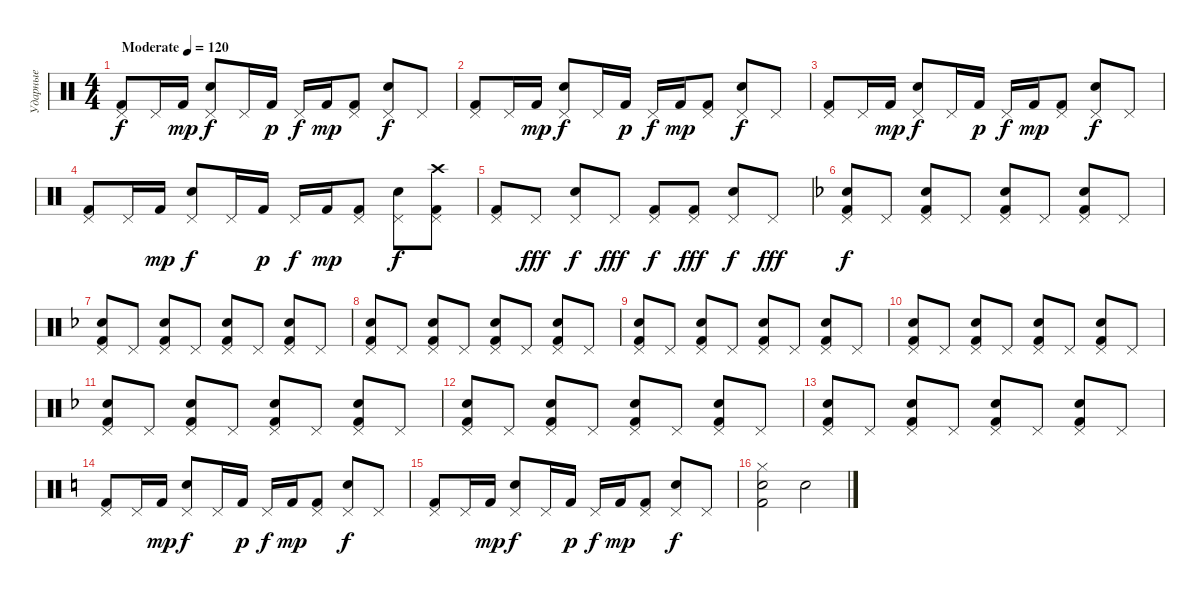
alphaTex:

\track ("Ударные" "Ударные") {instrument percussion}
\staff {score}
\articulation defaults
\ts (4 4)
\tempo (120 "Moderate")
\clef neutral
\ks c
("Pedal Hi-Hat (hit)" "Kick (hit) 2").8{dy f} "Pedal Hi-Hat (hit)".16 "Kick (hit) 2".16{dy mp} ("Pedal Hi-Hat (hit)" "Snare (hit) 2").8{dy f} "Pedal Hi-Hat (hit)".16 "Kick (hit) 2".16{dy p} "Pedal Hi-Hat (hit)".16{dy f} "Kick (hit) 2".16{dy mp} ("Pedal Hi-Hat (hit)" "Kick (hit) 2").8 ("Pedal Hi-Hat (hit)" "Snare (hit) 2").8{dy f} "Pedal Hi-Hat (hit)".8 |
("Pedal Hi-Hat (hit)" "Kick (hit) 2").8 "Pedal Hi-Hat (hit)".16 "Kick (hit) 2".16{dy mp} ("Pedal Hi-Hat (hit)" "Snare (hit) 2").8{dy f} "Pedal Hi-Hat (hit)".16 "Kick (hit) 2".16{dy p} "Pedal Hi-Hat (hit)".16{dy f} "Kick (hit) 2".16{dy mp} ("Pedal Hi-Hat (hit)" "Kick (hit) 2").8 ("Pedal Hi-Hat (hit)" "Snare (hit) 2").8{dy f} "Pedal Hi-Hat (hit)".8 |
("Pedal Hi-Hat (hit)" "Kick (hit) 2").8 "Pedal Hi-Hat (hit)".16 "Kick (hit) 2".16{dy mp} ("Pedal Hi-Hat (hit)" "Snare (hit) 2").8{dy f} "Pedal Hi-Hat (hit)".16 "Kick (hit) 2".16{dy p} "Pedal Hi-Hat (hit)".16{dy f} "Kick (hit) 2".16{dy mp} ("Pedal Hi-Hat (hit)" "Kick (hit) 2").8 ("Pedal Hi-Hat (hit)" "Snare (hit) 2").8{dy f} "Pedal Hi-Hat (hit)".8 |
("Pedal Hi-Hat (hit)" "Kick (hit) 2").8 "Pedal Hi-Hat (hit)".16 "Kick (hit) 2".16{dy mp} ("Pedal Hi-Hat (hit)" "Snare (hit) 2").8{dy f} "Pedal Hi-Hat (hit)".16 "Kick (hit) 2".16{dy p} "Pedal Hi-Hat (hit)".16{dy f} "Kick (hit) 2".16{dy mp} ("Pedal Hi-Hat (hit)" "Kick (hit) 2").8 ("Pedal Hi-Hat (hit)" "Snare (hit) 2").8{dy f} ("Pedal Hi-Hat (hit)" "Kick (hit) 2" "Crash high (hit)").8 |
("Kick (hit) 2" "Pedal Hi-Hat (hit)").8 "Pedal Hi-Hat (hit)".8{dy fff} ("Pedal Hi-Hat (hit)" "Snare (hit) 2").8{dy f} "Pedal Hi-Hat (hit)".8{dy fff} ("Kick (hit) 2" "Pedal Hi-Hat (hit)").8{dy f} ("Kick (hit) 2" "Pedal Hi-Hat (hit)").8{dy fff} ("Pedal Hi-Hat (hit)" "Snare (hit) 2").8{dy f} "Pedal Hi-Hat (hit)".8{dy fff} |
\ks dminor
("Pedal Hi-Hat (hit)" "Snare (hit) 2" "Kick (hit) 2").8{dy f} "Pedal Hi-Hat (hit)".8 ("Pedal Hi-Hat (hit)" "Snare (hit) 2" "Kick (hit) 2").8 "Pedal Hi-Hat (hit)".8 ("Pedal Hi-Hat (hit)" "Snare (hit) 2" "Kick (hit) 2").8 "Pedal Hi-Hat (hit)".8 ("Pedal Hi-Hat (hit)" "Snare (hit) 2" "Kick (hit) 2").8 "Pedal Hi-Hat (hit)".8 |
("Pedal Hi-Hat (hit)" "Snare (hit) 2" "Kick (hit) 2").8 "Pedal Hi-Hat (hit)".8 ("Pedal Hi-Hat (hit)" "Snare (hit) 2" "Kick (hit) 2").8 "Pedal Hi-Hat (hit)".8 ("Pedal Hi-Hat (hit)" "Snare (hit) 2" "Kick (hit) 2").8 "Pedal Hi-Hat (hit)".8 ("Pedal Hi-Hat (hit)" "Snare (hit) 2" "Kick (hit) 2").8 "Pedal Hi-Hat (hit)".8 |
("Pedal Hi-Hat (hit)" "Snare (hit) 2" "Kick (hit) 2").8 "Pedal Hi-Hat (hit)".8 ("Pedal Hi-Hat (hit)" "Snare (hit) 2" "Kick (hit) 2").8 "Pedal Hi-Hat (hit)".8 ("Pedal Hi-Hat (hit)" "Snare (hit) 2" "Kick (hit) 2").8 "Pedal Hi-Hat (hit)".8 ("Pedal Hi-Hat (hit)" "Snare (hit) 2" "Kick (hit) 2").8 "Pedal Hi-Hat (hit)".8 |
("Pedal Hi-Hat (hit)" "Snare (hit) 2" "Kick (hit) 2").8 "Pedal Hi-Hat (hit)".8 ("Pedal Hi-Hat (hit)" "Snare (hit) 2" "Kick (hit) 2").8 "Pedal Hi-Hat (hit)".8 ("Pedal Hi-Hat (hit)" "Snare (hit) 2" "Kick (hit) 2").8 "Pedal Hi-Hat (hit)".8 ("Pedal Hi-Hat (hit)" "Snare (hit) 2" "Kick (hit) 2").8 "Pedal Hi-Hat (hit)".8 |
("Pedal Hi-Hat (hit)" "Snare (hit) 2" "Kick (hit) 2").8 "Pedal Hi-Hat (hit)".8 ("Pedal Hi-Hat (hit)" "Snare (hit) 2" "Kick (hit) 2").8 "Pedal Hi-Hat (hit)".8 ("Pedal Hi-Hat (hit)" "Snare (hit) 2" "Kick (hit) 2").8 "Pedal Hi-Hat (hit)".8 ("Pedal Hi-Hat (hit)" "Snare (hit) 2" "Kick (hit) 2").8 "Pedal Hi-Hat (hit)".8 |
("Pedal Hi-Hat (hit)" "Snare (hit) 2" "Kick (hit) 2").8 "Pedal Hi-Hat (hit)".8 ("Pedal Hi-Hat (hit)" "Snare (hit) 2" "Kick (hit) 2").8 "Pedal Hi-Hat (hit)".8 ("Pedal Hi-Hat (hit)" "Snare (hit) 2" "Kick (hit) 2").8 "Pedal Hi-Hat (hit)".8 ("Pedal Hi-Hat (hit)" "Snare (hit) 2" "Kick (hit) 2").8 "Pedal Hi-Hat (hit)".8 |
("Pedal Hi-Hat (hit)" "Snare (hit) 2" "Kick (hit) 2").8 "Pedal Hi-Hat (hit)".8 ("Pedal Hi-Hat (hit)" "Snare (hit) 2" "Kick (hit) 2").8 "Pedal Hi-Hat (hit)".8 ("Pedal Hi-Hat (hit)" "Snare (hit) 2" "Kick (hit) 2").8 "Pedal Hi-Hat (hit)".8 ("Pedal Hi-Hat (hit)" "Snare (hit) 2" "Kick (hit) 2").8 "Pedal Hi-Hat (hit)".8 |
("Pedal Hi-Hat (hit)" "Snare (hit) 2" "Kick (hit) 2").8 "Pedal Hi-Hat (hit)".8 ("Pedal Hi-Hat (hit)" "Snare (hit) 2" "Kick (hit) 2").8 "Pedal Hi-Hat (hit)".8 ("Pedal Hi-Hat (hit)" "Snare (hit) 2" "Kick (hit) 2").8 "Pedal Hi-Hat (hit)".8 ("Pedal Hi-Hat (hit)" "Snare (hit) 2" "Kick (hit) 2").8 "Pedal Hi-Hat (hit)".8 |
\ks c
("Pedal Hi-Hat (hit)" "Kick (hit) 2").8 "Pedal Hi-Hat (hit)".16 "Kick (hit) 2".16{dy mp} ("Pedal Hi-Hat (hit)" "Snare (hit) 2").8{dy f} "Pedal Hi-Hat (hit)".16 "Kick (hit) 2".16{dy p} "Pedal Hi-Hat (hit)".16{dy f} "Kick (hit) 2".16{dy mp} ("Pedal Hi-Hat (hit)" "Kick (hit) 2").8 ("Pedal Hi-Hat (hit)" "Snare (hit) 2").8{dy f} "Pedal Hi-Hat (hit)".8 |
("Pedal Hi-Hat (hit)" "Kick (hit) 2").8 "Pedal Hi-Hat (hit)".16 "Kick (hit) 2".16{dy mp} ("Pedal Hi-Hat (hit)" "Snare (hit) 2").8{dy f} "Pedal Hi-Hat (hit)".16 "Kick (hit) 2".16{dy p} "Pedal Hi-Hat (hit)".16{dy f} "Kick (hit) 2".16{dy mp} ("Pedal Hi-Hat (hit)" "Kick (hit) 2").8 ("Pedal Hi-Hat (hit)" "Snare (hit) 2").8{dy f} "Pedal Hi-Hat (hit)".8 |
("Snare (hit) 2" "Hi-Hat (closed)" "Kick (hit) 2").2 "Snare (hit) 2".2
